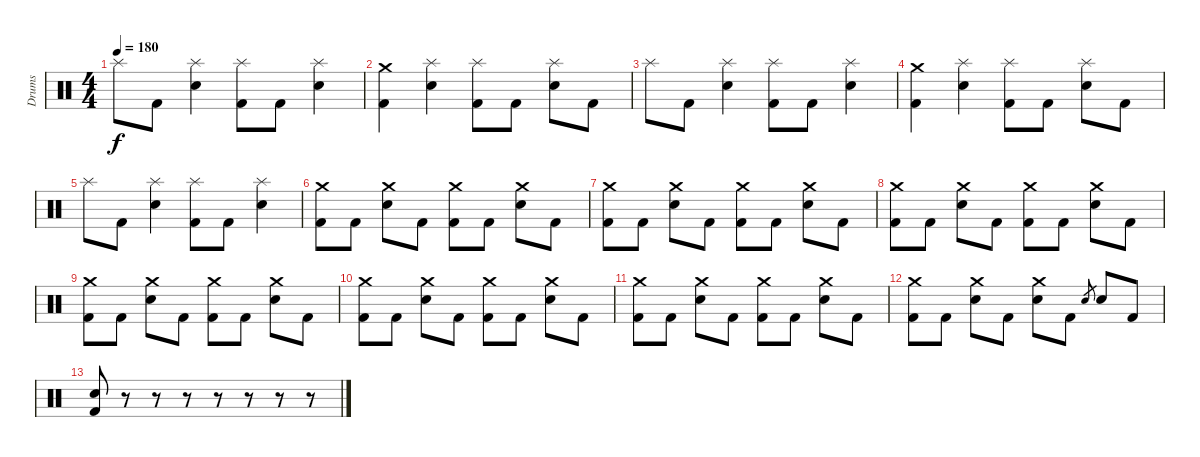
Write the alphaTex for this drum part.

\track ("Drums" "Drums") {instrument percussion}
\staff {score}
\articulation defaults
\ts (4 4)
\tempo 180
\clef neutral
\ks c "Splash (hit)".8{dy f} "Kick (hit) 2".8
("Splash (hit)" "Electric Snare (hit)").4 ("Splash (hit)" "Kick (hit) 2").8 "Kick (hit) 2".8 ("Splash (hit)" "Electric Snare (hit)").4 |
("Crash medium (hit)" "Kick (hit) 2").4 ("Splash (hit)" "Electric Snare (hit)").4 ("Splash (hit)" "Kick (hit) 2").8 "Kick (hit) 2".8 ("Splash (hit)" "Electric Snare (hit)").8 "Kick (hit) 2".8 |
"Splash (hit)".8 "Kick (hit) 2".8 ("Splash (hit)" "Electric Snare (hit)").4 ("Splash (hit)" "Kick (hit) 2").8 "Kick (hit) 2".8 ("Splash (hit)" "Electric Snare (hit)").4 |
("Crash medium (hit)" "Kick (hit) 2").4 ("Splash (hit)" "Electric Snare (hit)").4 ("Splash (hit)" "Kick (hit) 2").8 "Kick (hit) 2".8 ("Splash (hit)" "Electric Snare (hit)").8 "Kick (hit) 2".8 |
"Splash (hit)".8 "Kick (hit) 2".8 ("Splash (hit)" "Electric Snare (hit)").4 ("Splash (hit)" "Kick (hit) 2").8 "Kick (hit) 2".8 ("Splash (hit)" "Electric Snare (hit)").4 |
("Crash medium (hit)" "Kick (hit) 2").8 "Kick (hit) 2".8 ("Crash medium (hit)" "Electric Snare (hit)").8 "Kick (hit) 2".8 ("Crash medium (hit)" "Kick (hit) 2").8 "Kick (hit) 2".8 ("Crash medium (hit)" "Electric Snare (hit)").8 "Kick (hit) 2".8 |
("Crash medium (hit)" "Kick (hit) 2").8 "Kick (hit) 2".8 ("Crash medium (hit)" "Electric Snare (hit)").8 "Kick (hit) 2".8 ("Crash medium (hit)" "Kick (hit) 2").8 "Kick (hit) 2".8 ("Crash medium (hit)" "Electric Snare (hit)").8 "Kick (hit) 2".8 |
("Crash medium (hit)" "Kick (hit) 2").8 "Kick (hit) 2".8 ("Crash medium (hit)" "Electric Snare (hit)").8 "Kick (hit) 2".8 ("Crash medium (hit)" "Kick (hit) 2").8 "Kick (hit) 2".8 ("Crash medium (hit)" "Electric Snare (hit)").8 "Kick (hit) 2".8 |
("Crash medium (hit)" "Kick (hit) 2").8 "Kick (hit) 2".8 ("Crash medium (hit)" "Electric Snare (hit)").8 "Kick (hit) 2".8 ("Crash medium (hit)" "Kick (hit) 2").8 "Kick (hit) 2".8 ("Crash medium (hit)" "Electric Snare (hit)").8 "Kick (hit) 2".8 |
("Crash medium (hit)" "Kick (hit) 2").8 "Kick (hit) 2".8 ("Crash medium (hit)" "Electric Snare (hit)").8 "Kick (hit) 2".8 ("Crash medium (hit)" "Kick (hit) 2").8 "Kick (hit) 2".8 ("Crash medium (hit)" "Electric Snare (hit)").8 "Kick (hit) 2".8 |
("Crash medium (hit)" "Kick (hit) 2").8 "Kick (hit) 2".8 ("Crash medium (hit)" "Electric Snare (hit)").8 "Kick (hit) 2".8 ("Crash medium (hit)" "Kick (hit) 2").8 "Kick (hit) 2".8 ("Crash medium (hit)" "Electric Snare (hit)").8 "Kick (hit) 2".8 |
("Crash medium (hit)" "Kick (hit) 2").8 "Kick (hit) 2".8 ("Crash medium (hit)" "Electric Snare (hit)").8 "Kick (hit) 2".8 ("Crash medium (hit)" "Electric Snare (hit)").8 "Kick (hit) 2".8 "Electric Snare (hit)".8{gr} "Electric Snare (hit)".8 "Kick (hit) 2".8 |
("Electric Snare (hit)" "Kick (hit) 2").8 r.8 r.8 r.8 r.8 r.8 r.8 r.8
